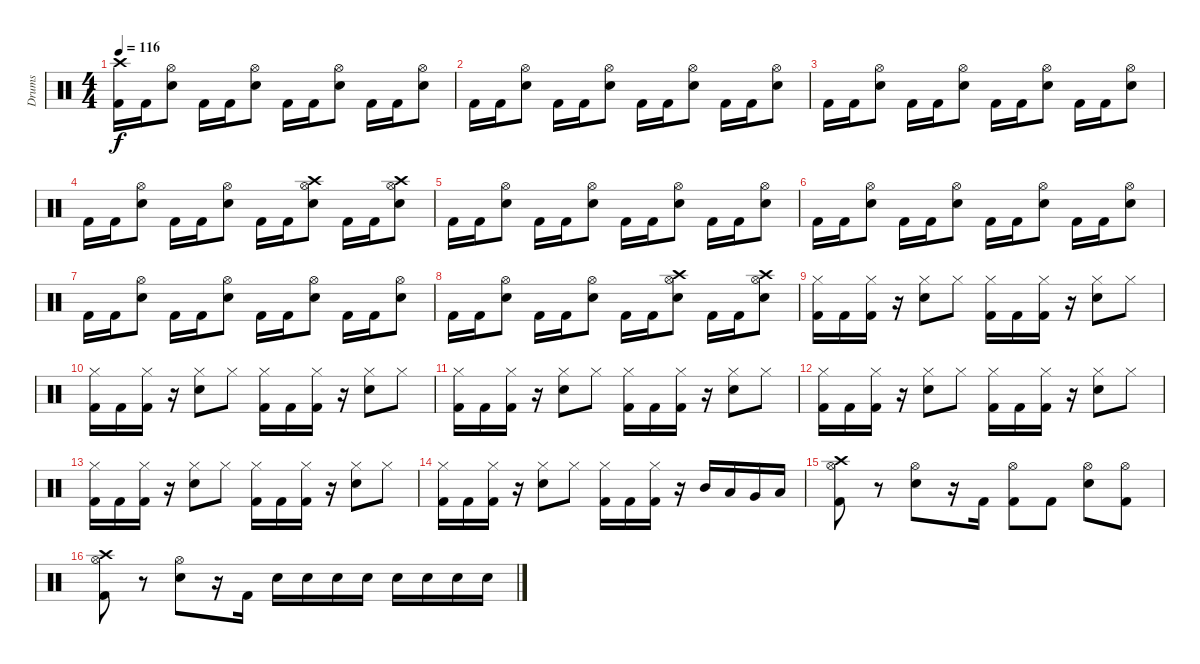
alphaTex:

\track ("Drums" "Drums") {instrument percussion}
\staff {score}
\articulation defaults
\ts (4 4)
\tempo 116
\clef neutral
\ks c
("Crash high (hit)" "Kick (hit) 2").16{dy f volume 13} "Kick (hit) 2".16 ("Hi-Hat (open)" "Snare (hit) 2").8 "Kick (hit) 2".16 "Kick (hit) 2".16 ("Hi-Hat (open)" "Snare (hit) 2").8 "Kick (hit) 2".16 "Kick (hit) 2".16 ("Hi-Hat (open)" "Snare (hit) 2").8 "Kick (hit) 2".16 "Kick (hit) 2".16 ("Hi-Hat (open)" "Snare (hit) 2").8 |
"Kick (hit) 2".16{volume 13} "Kick (hit) 2".16 ("Hi-Hat (open)" "Snare (hit) 2").8 "Kick (hit) 2".16 "Kick (hit) 2".16 ("Hi-Hat (open)" "Snare (hit) 2").8 "Kick (hit) 2".16 "Kick (hit) 2".16 ("Hi-Hat (open)" "Snare (hit) 2").8 "Kick (hit) 2".16 "Kick (hit) 2".16 ("Hi-Hat (open)" "Snare (hit) 2").8 |
"Kick (hit) 2".16{volume 13} "Kick (hit) 2".16 ("Hi-Hat (open)" "Snare (hit) 2").8 "Kick (hit) 2".16 "Kick (hit) 2".16 ("Hi-Hat (open)" "Snare (hit) 2").8 "Kick (hit) 2".16 "Kick (hit) 2".16 ("Hi-Hat (open)" "Snare (hit) 2").8 "Kick (hit) 2".16 "Kick (hit) 2".16 ("Hi-Hat (open)" "Snare (hit) 2").8 |
"Kick (hit) 2".16{volume 13} "Kick (hit) 2".16 ("Hi-Hat (open)" "Snare (hit) 2").8 "Kick (hit) 2".16 "Kick (hit) 2".16 ("Hi-Hat (open)" "Snare (hit) 2").8 "Kick (hit) 2".16 "Kick (hit) 2".16 ("Crash high (hit)" "Hi-Hat (open)" "Snare (hit) 2").8 "Kick (hit) 2".16 "Kick (hit) 2".16 ("Crash high (hit)" "Hi-Hat (open)" "Snare (hit) 2").8 |
"Kick (hit) 2".16{volume 13} "Kick (hit) 2".16 ("Hi-Hat (open)" "Snare (hit) 2").8 "Kick (hit) 2".16 "Kick (hit) 2".16 ("Hi-Hat (open)" "Snare (hit) 2").8 "Kick (hit) 2".16 "Kick (hit) 2".16 ("Hi-Hat (open)" "Snare (hit) 2").8 "Kick (hit) 2".16 "Kick (hit) 2".16 ("Hi-Hat (open)" "Snare (hit) 2").8 |
"Kick (hit) 2".16{volume 13} "Kick (hit) 2".16 ("Hi-Hat (open)" "Snare (hit) 2").8 "Kick (hit) 2".16 "Kick (hit) 2".16 ("Hi-Hat (open)" "Snare (hit) 2").8 "Kick (hit) 2".16 "Kick (hit) 2".16 ("Hi-Hat (open)" "Snare (hit) 2").8 "Kick (hit) 2".16 "Kick (hit) 2".16 ("Hi-Hat (open)" "Snare (hit) 2").8 |
"Kick (hit) 2".16{volume 13} "Kick (hit) 2".16 ("Hi-Hat (open)" "Snare (hit) 2").8 "Kick (hit) 2".16 "Kick (hit) 2".16 ("Hi-Hat (open)" "Snare (hit) 2").8 "Kick (hit) 2".16 "Kick (hit) 2".16 ("Hi-Hat (open)" "Snare (hit) 2").8 "Kick (hit) 2".16 "Kick (hit) 2".16 ("Hi-Hat (open)" "Snare (hit) 2").8 |
"Kick (hit) 2".16{volume 13} "Kick (hit) 2".16 ("Hi-Hat (open)" "Snare (hit) 2").8 "Kick (hit) 2".16 "Kick (hit) 2".16 ("Hi-Hat (open)" "Snare (hit) 2").8 "Kick (hit) 2".16 "Kick (hit) 2".16 ("Crash high (hit)" "Hi-Hat (open)" "Snare (hit) 2").8 "Kick (hit) 2".16 "Kick (hit) 2".16 ("Crash high (hit)" "Hi-Hat (open)" "Snare (hit) 2").8 |
("Hi-Hat (closed)" "Kick (hit) 2").16 "Kick (hit) 2".16 ("Hi-Hat (closed)" "Kick (hit) 2").16 r.16 ("Hi-Hat (closed)" "Snare (hit) 2").8 "Hi-Hat (closed)".8 ("Hi-Hat (closed)" "Kick (hit) 2").16 "Kick (hit) 2".16 ("Hi-Hat (closed)" "Kick (hit) 2").16 r.16 ("Hi-Hat (closed)" "Snare (hit) 2").8 "Hi-Hat (closed)".8 |
("Hi-Hat (closed)" "Kick (hit) 2").16 "Kick (hit) 2".16 ("Hi-Hat (closed)" "Kick (hit) 2").16 r.16 ("Hi-Hat (closed)" "Snare (hit) 2").8 "Hi-Hat (closed)".8 ("Hi-Hat (closed)" "Kick (hit) 2").16 "Kick (hit) 2".16 ("Hi-Hat (closed)" "Kick (hit) 2").16 r.16 ("Hi-Hat (closed)" "Snare (hit) 2").8 "Hi-Hat (closed)".8 |
("Hi-Hat (closed)" "Kick (hit) 2").16 "Kick (hit) 2".16 ("Hi-Hat (closed)" "Kick (hit) 2").16 r.16 ("Hi-Hat (closed)" "Snare (hit) 2").8 "Hi-Hat (closed)".8 ("Hi-Hat (closed)" "Kick (hit) 2").16 "Kick (hit) 2".16 ("Hi-Hat (closed)" "Kick (hit) 2").16 r.16 ("Hi-Hat (closed)" "Snare (hit) 2").8 "Hi-Hat (closed)".8 |
("Hi-Hat (closed)" "Kick (hit) 2").16 "Kick (hit) 2".16 ("Hi-Hat (closed)" "Kick (hit) 2").16 r.16 ("Hi-Hat (closed)" "Snare (hit) 2").8 "Hi-Hat (closed)".8 ("Hi-Hat (closed)" "Kick (hit) 2").16 "Kick (hit) 2".16 ("Hi-Hat (closed)" "Kick (hit) 2").16 r.16 ("Hi-Hat (closed)" "Snare (hit) 2").8 "Hi-Hat (closed)".8 |
("Hi-Hat (closed)" "Kick (hit) 2").16 "Kick (hit) 2".16 ("Hi-Hat (closed)" "Kick (hit) 2").16 r.16 ("Hi-Hat (closed)" "Snare (hit) 2").8 "Hi-Hat (closed)".8 ("Hi-Hat (closed)" "Kick (hit) 2").16 "Kick (hit) 2".16 ("Hi-Hat (closed)" "Kick (hit) 2").16 r.16 ("Hi-Hat (closed)" "Snare (hit) 2").8 "Hi-Hat (closed)".8 |
("Hi-Hat (closed)" "Kick (hit) 2").16 "Kick (hit) 2".16 ("Hi-Hat (closed)" "Kick (hit) 2").16 r.16 ("Hi-Hat (closed)" "Snare (hit) 2").8 "Hi-Hat (closed)".8 ("Hi-Hat (closed)" "Kick (hit) 2").16 "Kick (hit) 2".16 ("Hi-Hat (closed)" "Kick (hit) 2").16 r.16 "Mid Tom (hit)".16 "Low Tom (hit)".16 "Very Low Tom (hit)".16 "Low Floor Tom (hit)".16 |
("Crash high (hit)" "Hi-Hat (open)" "Kick (hit) 2").8 r.8 ("Hi-Hat (open)" "Snare (hit) 2").8 r.16 "Kick (hit) 2".16 ("Hi-Hat (open)" "Kick (hit) 2").8 "Kick (hit) 2".8 ("Hi-Hat (open)" "Snare (hit) 2").8 ("Hi-Hat (open)" "Kick (hit) 2").8 |
("Crash high (hit)" "Hi-Hat (open)" "Kick (hit) 2").8 r.8 ("Hi-Hat (open)" "Snare (hit) 2").8 r.16 "Kick (hit) 2".16 "Snare (hit) 2".16 "Snare (hit) 2".16 "Snare (hit) 2".16 "Snare (hit) 2".16 "Snare (hit) 2".16 "Snare (hit) 2".16 "Snare (hit) 2".16 "Snare (hit) 2".16
